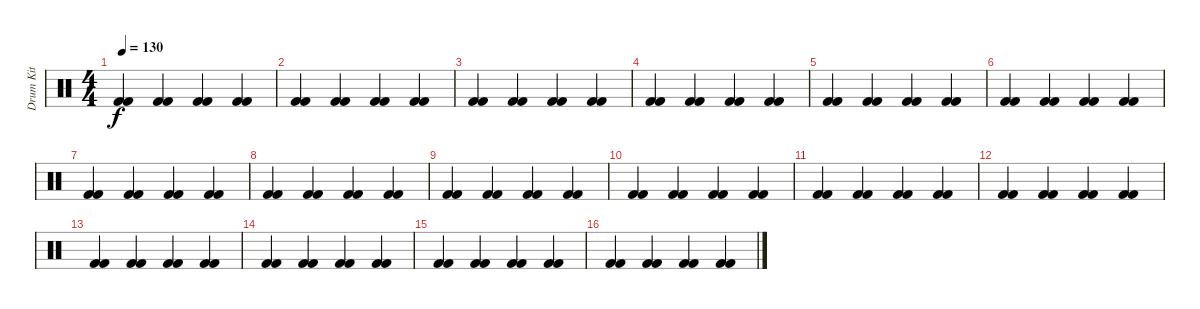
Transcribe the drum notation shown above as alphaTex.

\track ("Drum Kit" "Drum Kit") {instrument percussion}
\staff {score}
\articulation defaults
\ts (4 4)
\tempo 130
\clef neutral
\ks c
("Kick (hit) 2" "Kick (hit) 2").4{dy f} ("Kick (hit) 2" "Kick (hit) 2").4 ("Kick (hit) 2" "Kick (hit) 2").4 ("Kick (hit) 2" "Kick (hit) 2").4 |
("Kick (hit) 2" "Kick (hit) 2").4 ("Kick (hit) 2" "Kick (hit) 2").4 ("Kick (hit) 2" "Kick (hit) 2").4 ("Kick (hit) 2" "Kick (hit) 2").4 |
("Kick (hit) 2" "Kick (hit) 2").4 ("Kick (hit) 2" "Kick (hit) 2").4 ("Kick (hit) 2" "Kick (hit) 2").4 ("Kick (hit) 2" "Kick (hit) 2").4 |
("Kick (hit) 2" "Kick (hit) 2").4 ("Kick (hit) 2" "Kick (hit) 2").4 ("Kick (hit) 2" "Kick (hit) 2").4 ("Kick (hit) 2" "Kick (hit) 2").4 |
("Kick (hit) 2" "Kick (hit) 2").4 ("Kick (hit) 2" "Kick (hit) 2").4 ("Kick (hit) 2" "Kick (hit) 2").4 ("Kick (hit) 2" "Kick (hit) 2").4 |
("Kick (hit) 2" "Kick (hit) 2").4 ("Kick (hit) 2" "Kick (hit) 2").4 ("Kick (hit) 2" "Kick (hit) 2").4 ("Kick (hit) 2" "Kick (hit) 2").4 |
("Kick (hit) 2" "Kick (hit) 2").4 ("Kick (hit) 2" "Kick (hit) 2").4 ("Kick (hit) 2" "Kick (hit) 2").4 ("Kick (hit) 2" "Kick (hit) 2").4 |
("Kick (hit) 2" "Kick (hit) 2").4 ("Kick (hit) 2" "Kick (hit) 2").4 ("Kick (hit) 2" "Kick (hit) 2").4 ("Kick (hit) 2" "Kick (hit) 2").4 |
("Kick (hit) 2" "Kick (hit) 2").4 ("Kick (hit) 2" "Kick (hit) 2").4 ("Kick (hit) 2" "Kick (hit) 2").4 ("Kick (hit) 2" "Kick (hit) 2").4 |
("Kick (hit) 2" "Kick (hit) 2").4 ("Kick (hit) 2" "Kick (hit) 2").4 ("Kick (hit) 2" "Kick (hit) 2").4 ("Kick (hit) 2" "Kick (hit) 2").4 |
("Kick (hit) 2" "Kick (hit) 2").4 ("Kick (hit) 2" "Kick (hit) 2").4 ("Kick (hit) 2" "Kick (hit) 2").4 ("Kick (hit) 2" "Kick (hit) 2").4 |
("Kick (hit) 2" "Kick (hit) 2").4 ("Kick (hit) 2" "Kick (hit) 2").4 ("Kick (hit) 2" "Kick (hit) 2").4 ("Kick (hit) 2" "Kick (hit) 2").4 |
("Kick (hit) 2" "Kick (hit) 2").4 ("Kick (hit) 2" "Kick (hit) 2").4 ("Kick (hit) 2" "Kick (hit) 2").4 ("Kick (hit) 2" "Kick (hit) 2").4 |
("Kick (hit) 2" "Kick (hit) 2").4 ("Kick (hit) 2" "Kick (hit) 2").4 ("Kick (hit) 2" "Kick (hit) 2").4 ("Kick (hit) 2" "Kick (hit) 2").4 |
("Kick (hit) 2" "Kick (hit) 2").4 ("Kick (hit) 2" "Kick (hit) 2").4 ("Kick (hit) 2" "Kick (hit) 2").4 ("Kick (hit) 2" "Kick (hit) 2").4 |
("Kick (hit) 2" "Kick (hit) 2").4 ("Kick (hit) 2" "Kick (hit) 2").4 ("Kick (hit) 2" "Kick (hit) 2").4 ("Kick (hit) 2" "Kick (hit) 2").4
